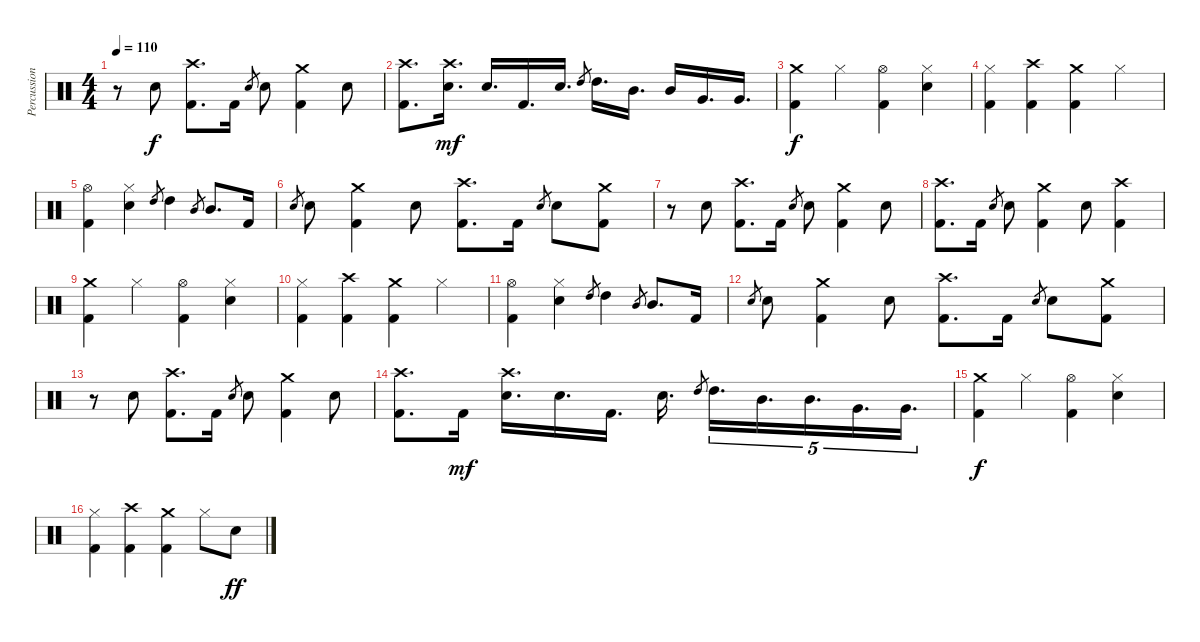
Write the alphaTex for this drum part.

\track ("Percussion" "Percussion") {instrument percussion}
\staff {score}
\articulation defaults
\ts (4 4)
\tempo 110
\clef neutral
\ks c
r.8{dy f} "Electric Snare (hit)".8 ("Crash high (hit)" "Kick (hit) 2").8{d} "Kick (hit) 2".16 "Electric Snare (hit)".8{gr} "Electric Snare (hit)".8 ("Crash medium (hit)" "Kick (hit) 2").4 "Electric Snare (hit)".8 |
("Crash high (hit)" "Kick (hit) 2").8{d} ("Crash high (hit)" "Electric Snare (hit)").16{d dy mf} "Electric Snare (hit)".16{d} "Kick (hit) 2".16{d} "Electric Snare (hit)".16{d} "High Tom (hit)".8{gr} "High Tom (hit)".16{d} "Mid Tom (hit)".16{d} "Mid Tom (hit)".16 "Very Low Tom (hit)".16{d} "Very Low Tom (hit)".16{d} |
("Crash medium (hit)" "Kick (hit) 2").4{dy f} "Hi-Hat (closed)".4 ("Hi-Hat (open)" "Kick (hit) 2").4 ("Hi-Hat (closed)" "Electric Snare (hit)").4 |
("Hi-Hat (closed)" "Kick (hit) 2").4 ("Crash high (hit)" "Kick (hit) 2").4 ("Crash medium (hit)" "Kick (hit) 2").4 "Hi-Hat (closed)".4 |
("Hi-Hat (open)" "Kick (hit) 2").4 ("Hi-Hat (closed)" "Electric Snare (hit)").4 "High Tom (hit)".8{gr} "High Tom (hit)".4 "Mid Tom (hit)".8{gr} "Mid Tom (hit)".8{d} "Kick (hit) 2".16 |
"Electric Snare (hit)".8{gr} "Electric Snare (hit)".8 ("Crash medium (hit)" "Kick (hit) 2").4 "Electric Snare (hit)".8 ("Crash high (hit)" "Kick (hit) 2").8{d} "Kick (hit) 2".16 "Electric Snare (hit)".8{gr} "Electric Snare (hit)".8 ("Crash medium (hit)" "Kick (hit) 2").8 |
r.8 "Electric Snare (hit)".8 ("Crash high (hit)" "Kick (hit) 2").8{d} "Kick (hit) 2".16 "Electric Snare (hit)".8{gr} "Electric Snare (hit)".8 ("Crash medium (hit)" "Kick (hit) 2").4 "Electric Snare (hit)".8 |
("Crash high (hit)" "Kick (hit) 2").8{d} "Kick (hit) 2".16 "Electric Snare (hit)".8{gr} "Electric Snare (hit)".8 ("Crash medium (hit)" "Kick (hit) 2").4 "Electric Snare (hit)".8 ("Crash high (hit)" "Kick (hit) 2").4 |
("Crash medium (hit)" "Kick (hit) 2").4 "Hi-Hat (closed)".4 ("Hi-Hat (open)" "Kick (hit) 2").4 ("Hi-Hat (closed)" "Electric Snare (hit)").4 |
("Hi-Hat (closed)" "Kick (hit) 2").4 ("Crash high (hit)" "Kick (hit) 2").4 ("Crash medium (hit)" "Kick (hit) 2").4 "Hi-Hat (closed)".4 |
("Hi-Hat (open)" "Kick (hit) 2").4 ("Hi-Hat (closed)" "Electric Snare (hit)").4 "High Tom (hit)".8{gr} "High Tom (hit)".4 "Mid Tom (hit)".8{gr} "Mid Tom (hit)".8{d} "Kick (hit) 2".16 |
"Electric Snare (hit)".8{gr} "Electric Snare (hit)".8 ("Crash medium (hit)" "Kick (hit) 2").4 "Electric Snare (hit)".8 ("Crash high (hit)" "Kick (hit) 2").8{d} "Kick (hit) 2".16 "Electric Snare (hit)".8{gr} "Electric Snare (hit)".8 ("Crash medium (hit)" "Kick (hit) 2").8 |
r.8 "Electric Snare (hit)".8 ("Crash high (hit)" "Kick (hit) 2").8{d} "Kick (hit) 2".16 "Electric Snare (hit)".8{gr} "Electric Snare (hit)".8 ("Crash medium (hit)" "Kick (hit) 2").4 "Electric Snare (hit)".8 |
("Crash high (hit)" "Kick (hit) 2").8{d} "Kick (hit) 2".16{dy mf} ("Crash high (hit)" "Electric Snare (hit)").16{d} "Electric Snare (hit)".16{d} "Kick (hit) 2".16{d} "Electric Snare (hit)".16{d} "High Tom (hit)".8{gr beam splitsecondary} "High Tom (hit)".16{d tu (5 4)} "Mid Tom (hit)".16{d tu (5 4)} "Mid Tom (hit)".16{d tu (5 4)} "Very Low Tom (hit)".16{d tu (5 4)} "Very Low Tom (hit)".16{d tu (5 4)} |
("Crash medium (hit)" "Kick (hit) 2").4{dy f} "Hi-Hat (closed)".4 ("Hi-Hat (open)" "Kick (hit) 2").4 ("Hi-Hat (closed)" "Electric Snare (hit)").4 |
("Hi-Hat (closed)" "Kick (hit) 2").4 ("Crash high (hit)" "Kick (hit) 2").4 ("Crash medium (hit)" "Kick (hit) 2").4 "Hi-Hat (closed)".8 "Electric Snare (hit)".8{dy ff}
